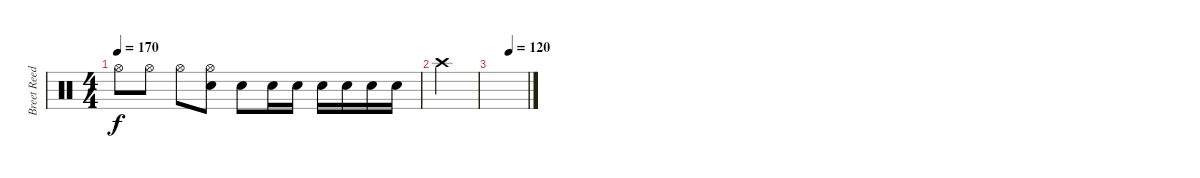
\track ("Breet Reed" "Breet Reed") {instrument percussion}
\staff {score}
\articulation defaults
\ts (4 4)
\tempo 170
\clef neutral
\ks c "Hi-Hat (open)".8{dy f} "Hi-Hat (open)".8 "Hi-Hat (open)".8
("Snare (hit) 2" "Hi-Hat (open)").8 "Snare (hit) 2".8 "Snare (hit) 2".16 "Snare (hit) 2".16 "Snare (hit) 2".16 "Snare (hit) 2".16 "Snare (hit) 2".16 "Snare (hit) 2".16 |
"Crash high (hit)".4 |
\tempo (120 0.5)
